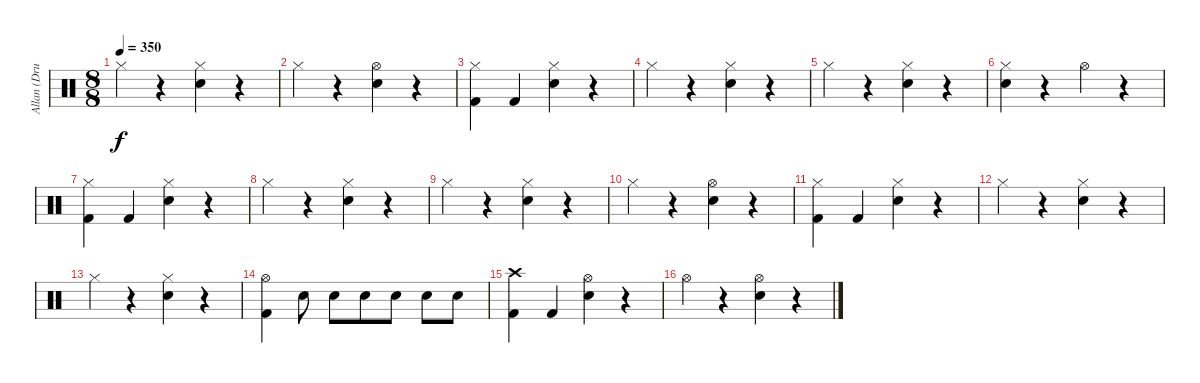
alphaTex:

\track ("Allan (Drums)" "Allan (Dru") {solo instrument percussion}
\staff {score}
\articulation defaults
\ts (8 8)
\tempo 350
\clef neutral
\ks c "Hi-Hat (closed)".4{dy f}
r.4 ("Hi-Hat (closed)" "Snare (hit) 2").4 r.4 |
"Hi-Hat (closed)".4 r.4 ("Hi-Hat (open)" "Snare (hit) 2").4 r.4 |
("Hi-Hat (closed)" "Kick (hit) 2").4 "Kick (hit) 2".4 ("Hi-Hat (closed)" "Snare (hit) 2").4 r.4 |
"Hi-Hat (closed)".4 r.4 ("Hi-Hat (closed)" "Snare (hit) 2").4 r.4 |
"Hi-Hat (closed)".4 r.4 ("Hi-Hat (closed)" "Snare (hit) 2").4 r.4 |
("Hi-Hat (closed)" "Snare (hit) 2").4 r.4 "Hi-Hat (open)".4 r.4 |
("Hi-Hat (closed)" "Kick (hit) 2").4 "Kick (hit) 2".4 ("Hi-Hat (closed)" "Snare (hit) 2").4 r.4 |
"Hi-Hat (closed)".4 r.4 ("Hi-Hat (closed)" "Snare (hit) 2").4 r.4 |
"Hi-Hat (closed)".4 r.4 ("Hi-Hat (closed)" "Snare (hit) 2").4 r.4 |
"Hi-Hat (closed)".4 r.4 ("Hi-Hat (open)" "Snare (hit) 2").4 r.4 |
("Hi-Hat (closed)" "Kick (hit) 2").4 "Kick (hit) 2".4 ("Hi-Hat (closed)" "Snare (hit) 2").4 r.4 |
"Hi-Hat (closed)".4 r.4 ("Hi-Hat (closed)" "Snare (hit) 2").4 r.4 |
"Hi-Hat (closed)".4 r.4 ("Hi-Hat (closed)" "Snare (hit) 2").4 r.4 |
("Hi-Hat (open)" "Kick (hit) 2").4 "Snare (hit) 2".8 "Snare (hit) 2".8 "Snare (hit) 2".8 "Snare (hit) 2".8 "Snare (hit) 2".8 "Snare (hit) 2".8 |
("Crash high (hit)" "Kick (hit) 2").4 "Kick (hit) 2".4 ("Hi-Hat (open)" "Snare (hit) 2").4 r.4 |
"Hi-Hat (open)".4 r.4 ("Hi-Hat (open)" "Snare (hit) 2").4 r.4
